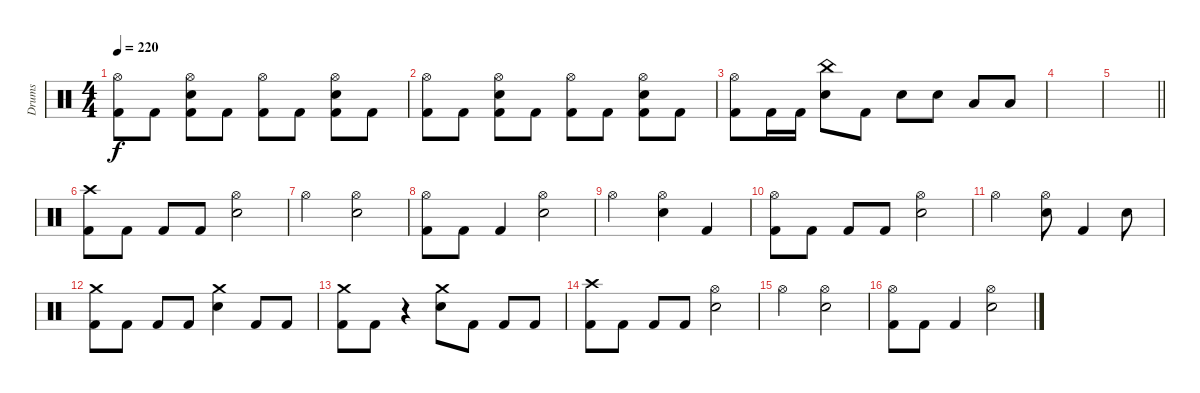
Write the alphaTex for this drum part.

\track ("Drums" "Drums") {instrument percussion}
\staff {score}
\articulation defaults
\ts (4 4)
\tempo 220
\clef neutral
\ks c
("Hi-Hat (open)" "Kick (hit) 2").8{dy f} "Kick (hit) 2".8 ("Hi-Hat (open)" "Snare (hit) 2" "Kick (hit) 2").8 "Kick (hit) 2".8 ("Hi-Hat (open)" "Kick (hit) 2").8 "Kick (hit) 2".8 ("Hi-Hat (open)" "Snare (hit) 2" "Kick (hit) 2").8 "Kick (hit) 2".8 |
("Hi-Hat (open)" "Kick (hit) 2").8 "Kick (hit) 2".8 ("Hi-Hat (open)" "Snare (hit) 2" "Kick (hit) 2").8 "Kick (hit) 2".8 ("Hi-Hat (open)" "Kick (hit) 2").8 "Kick (hit) 2".8 ("Hi-Hat (open)" "Snare (hit) 2" "Kick (hit) 2").8 "Kick (hit) 2".8 |
("Hi-Hat (open)" "Kick (hit) 2").8 "Kick (hit) 2".16 "Kick (hit) 2".16 ("China (hit)" "Snare (hit) 2").8 "Kick (hit) 2".8 "Snare (hit) 2".8 "Snare (hit) 2".8 "Low Tom (hit)".8 "Low Tom (hit)".8 |
|
\barLineRight lightlight
|
("Crash high (hit)" "Kick (hit) 2").8 "Kick (hit) 2".8 "Kick (hit) 2".8 "Kick (hit) 2".8 ("Hi-Hat (open)" "Snare (hit) 2").2 |
"Hi-Hat (open)".2 ("Hi-Hat (open)" "Snare (hit) 2").2 |
("Hi-Hat (open)" "Kick (hit) 2").8 "Kick (hit) 2".8 "Kick (hit) 2".4 ("Hi-Hat (open)" "Snare (hit) 2").2 |
"Hi-Hat (open)".2 ("Hi-Hat (open)" "Snare (hit) 2").4 "Kick (hit) 2".4 |
("Hi-Hat (open)" "Kick (hit) 2").8 "Kick (hit) 2".8 "Kick (hit) 2".8 "Kick (hit) 2".8 ("Hi-Hat (open)" "Snare (hit) 2").2 |
"Hi-Hat (open)".2 ("Hi-Hat (open)" "Snare (hit) 2").8 "Kick (hit) 2".4 "Snare (hit) 2".8 |
("Crash medium (hit)" "Kick (hit) 2").8 "Kick (hit) 2".8 "Kick (hit) 2".8 "Kick (hit) 2".8 ("Crash medium (hit)" "Snare (hit) 2").4 "Kick (hit) 2".8 "Kick (hit) 2".8 |
("Crash medium (hit)" "Kick (hit) 2").8 "Kick (hit) 2".8 r.4 ("Crash medium (hit)" "Snare (hit) 2").8 "Kick (hit) 2".8 "Kick (hit) 2".8 "Kick (hit) 2".8 |
("Crash high (hit)" "Kick (hit) 2").8 "Kick (hit) 2".8 "Kick (hit) 2".8 "Kick (hit) 2".8 ("Hi-Hat (open)" "Snare (hit) 2").2 |
"Hi-Hat (open)".2 ("Hi-Hat (open)" "Snare (hit) 2").2 |
("Hi-Hat (open)" "Kick (hit) 2").8 "Kick (hit) 2".8 "Kick (hit) 2".4 ("Hi-Hat (open)" "Snare (hit) 2").2
